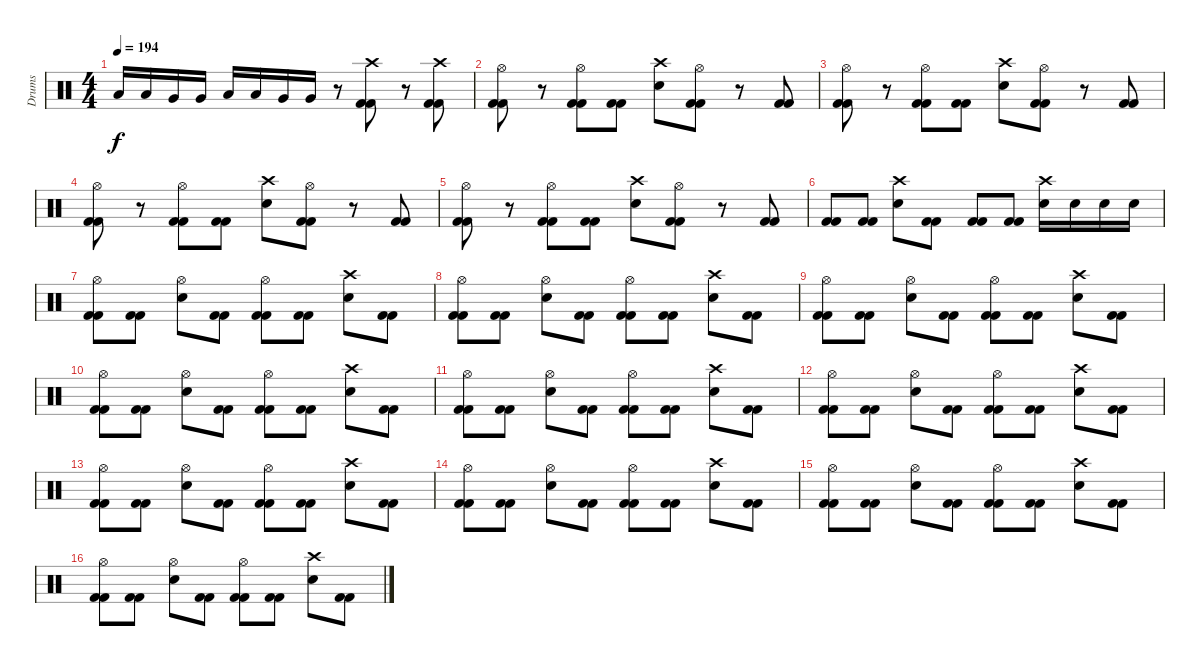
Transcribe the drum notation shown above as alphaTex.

\track ("Drums" "Drums") {instrument percussion}
\staff {score}
\articulation defaults
\ts (4 4)
\tempo 194
\clef neutral
\ks c "Low Tom (hit)".16{dy f} "Low Tom (hit)".16 "Very Low Tom (hit)".16 "Very Low Tom (hit)".16 "Low Tom (hit)".16 "Low Tom (hit)".16 "Very Low Tom (hit)".16 "Very Low Tom (hit)".16
r.8 ("Crash high (hit)" "Kick (hit) 2" "Kick (hit) 2").8 r.8 ("Crash high (hit)" "Kick (hit) 2" "Kick (hit) 2").8 |
("Hi-Hat (open)" "Kick (hit) 2" "Kick (hit) 2").8 r.8 ("Hi-Hat (open)" "Kick (hit) 2" "Kick (hit) 2").8 ("Kick (hit) 2" "Kick (hit) 2").8 ("Crash high (hit)" "Electric Snare (hit)").8 ("Hi-Hat (open)" "Kick (hit) 2" "Kick (hit) 2").8 r.8 ("Kick (hit) 2" "Kick (hit) 2").8 |
("Hi-Hat (open)" "Kick (hit) 2" "Kick (hit) 2").8 r.8 ("Hi-Hat (open)" "Kick (hit) 2" "Kick (hit) 2").8 ("Kick (hit) 2" "Kick (hit) 2").8 ("Crash high (hit)" "Electric Snare (hit)").8 ("Hi-Hat (open)" "Kick (hit) 2" "Kick (hit) 2").8 r.8 ("Kick (hit) 2" "Kick (hit) 2").8 |
("Hi-Hat (open)" "Kick (hit) 2" "Kick (hit) 2").8 r.8 ("Hi-Hat (open)" "Kick (hit) 2" "Kick (hit) 2").8 ("Kick (hit) 2" "Kick (hit) 2").8 ("Crash high (hit)" "Electric Snare (hit)").8 ("Hi-Hat (open)" "Kick (hit) 2" "Kick (hit) 2").8 r.8 ("Kick (hit) 2" "Kick (hit) 2").8 |
("Hi-Hat (open)" "Kick (hit) 2" "Kick (hit) 2").8 r.8 ("Hi-Hat (open)" "Kick (hit) 2" "Kick (hit) 2").8 ("Kick (hit) 2" "Kick (hit) 2").8 ("Crash high (hit)" "Electric Snare (hit)").8 ("Hi-Hat (open)" "Kick (hit) 2" "Kick (hit) 2").8 r.8 ("Kick (hit) 2" "Kick (hit) 2").8 |
("Kick (hit) 2" "Kick (hit) 2").8 ("Kick (hit) 2" "Kick (hit) 2").8 ("Crash high (hit)" "Electric Snare (hit)").8 ("Kick (hit) 2" "Kick (hit) 2").8 ("Kick (hit) 2" "Kick (hit) 2").8 ("Kick (hit) 2" "Kick (hit) 2").8 ("Crash high (hit)" "Electric Snare (hit)").16 "Electric Snare (hit)".16 "Electric Snare (hit)".16 "Electric Snare (hit)".16 |
("Hi-Hat (open)" "Kick (hit) 2" "Kick (hit) 2").8 ("Kick (hit) 2" "Kick (hit) 2").8 ("Hi-Hat (open)" "Electric Snare (hit)").8 ("Kick (hit) 2" "Kick (hit) 2").8 ("Hi-Hat (open)" "Kick (hit) 2" "Kick (hit) 2").8 ("Kick (hit) 2" "Kick (hit) 2").8 ("Crash high (hit)" "Electric Snare (hit)").8 ("Kick (hit) 2" "Kick (hit) 2").8 |
("Hi-Hat (open)" "Kick (hit) 2" "Kick (hit) 2").8 ("Kick (hit) 2" "Kick (hit) 2").8 ("Hi-Hat (open)" "Electric Snare (hit)").8 ("Kick (hit) 2" "Kick (hit) 2").8 ("Hi-Hat (open)" "Kick (hit) 2" "Kick (hit) 2").8 ("Kick (hit) 2" "Kick (hit) 2").8 ("Crash high (hit)" "Electric Snare (hit)").8 ("Kick (hit) 2" "Kick (hit) 2").8 |
("Hi-Hat (open)" "Kick (hit) 2" "Kick (hit) 2").8 ("Kick (hit) 2" "Kick (hit) 2").8 ("Hi-Hat (open)" "Electric Snare (hit)").8 ("Kick (hit) 2" "Kick (hit) 2").8 ("Hi-Hat (open)" "Kick (hit) 2" "Kick (hit) 2").8 ("Kick (hit) 2" "Kick (hit) 2").8 ("Crash high (hit)" "Electric Snare (hit)").8 ("Kick (hit) 2" "Kick (hit) 2").8 |
("Hi-Hat (open)" "Kick (hit) 2" "Kick (hit) 2").8 ("Kick (hit) 2" "Kick (hit) 2").8 ("Hi-Hat (open)" "Electric Snare (hit)").8 ("Kick (hit) 2" "Kick (hit) 2").8 ("Hi-Hat (open)" "Kick (hit) 2" "Kick (hit) 2").8 ("Kick (hit) 2" "Kick (hit) 2").8 ("Crash high (hit)" "Electric Snare (hit)").8 ("Kick (hit) 2" "Kick (hit) 2").8 |
("Hi-Hat (open)" "Kick (hit) 2" "Kick (hit) 2").8 ("Kick (hit) 2" "Kick (hit) 2").8 ("Hi-Hat (open)" "Electric Snare (hit)").8 ("Kick (hit) 2" "Kick (hit) 2").8 ("Hi-Hat (open)" "Kick (hit) 2" "Kick (hit) 2").8 ("Kick (hit) 2" "Kick (hit) 2").8 ("Crash high (hit)" "Electric Snare (hit)").8 ("Kick (hit) 2" "Kick (hit) 2").8 |
("Hi-Hat (open)" "Kick (hit) 2" "Kick (hit) 2").8 ("Kick (hit) 2" "Kick (hit) 2").8 ("Hi-Hat (open)" "Electric Snare (hit)").8 ("Kick (hit) 2" "Kick (hit) 2").8 ("Hi-Hat (open)" "Kick (hit) 2" "Kick (hit) 2").8 ("Kick (hit) 2" "Kick (hit) 2").8 ("Crash high (hit)" "Electric Snare (hit)").8 ("Kick (hit) 2" "Kick (hit) 2").8 |
("Hi-Hat (open)" "Kick (hit) 2" "Kick (hit) 2").8 ("Kick (hit) 2" "Kick (hit) 2").8 ("Hi-Hat (open)" "Electric Snare (hit)").8 ("Kick (hit) 2" "Kick (hit) 2").8 ("Hi-Hat (open)" "Kick (hit) 2" "Kick (hit) 2").8 ("Kick (hit) 2" "Kick (hit) 2").8 ("Crash high (hit)" "Electric Snare (hit)").8 ("Kick (hit) 2" "Kick (hit) 2").8 |
("Hi-Hat (open)" "Kick (hit) 2" "Kick (hit) 2").8 ("Kick (hit) 2" "Kick (hit) 2").8 ("Hi-Hat (open)" "Electric Snare (hit)").8 ("Kick (hit) 2" "Kick (hit) 2").8 ("Hi-Hat (open)" "Kick (hit) 2" "Kick (hit) 2").8 ("Kick (hit) 2" "Kick (hit) 2").8 ("Crash high (hit)" "Electric Snare (hit)").8 ("Kick (hit) 2" "Kick (hit) 2").8 |
("Hi-Hat (open)" "Kick (hit) 2" "Kick (hit) 2").8 ("Kick (hit) 2" "Kick (hit) 2").8 ("Hi-Hat (open)" "Electric Snare (hit)").8 ("Kick (hit) 2" "Kick (hit) 2").8 ("Hi-Hat (open)" "Kick (hit) 2" "Kick (hit) 2").8 ("Kick (hit) 2" "Kick (hit) 2").8 ("Crash high (hit)" "Electric Snare (hit)").8 ("Kick (hit) 2" "Kick (hit) 2").8 |
("Hi-Hat (open)" "Kick (hit) 2" "Kick (hit) 2").8 ("Kick (hit) 2" "Kick (hit) 2").8 ("Hi-Hat (open)" "Electric Snare (hit)").8 ("Kick (hit) 2" "Kick (hit) 2").8 ("Hi-Hat (open)" "Kick (hit) 2" "Kick (hit) 2").8 ("Kick (hit) 2" "Kick (hit) 2").8 ("Crash high (hit)" "Electric Snare (hit)").8 ("Kick (hit) 2" "Kick (hit) 2").8
